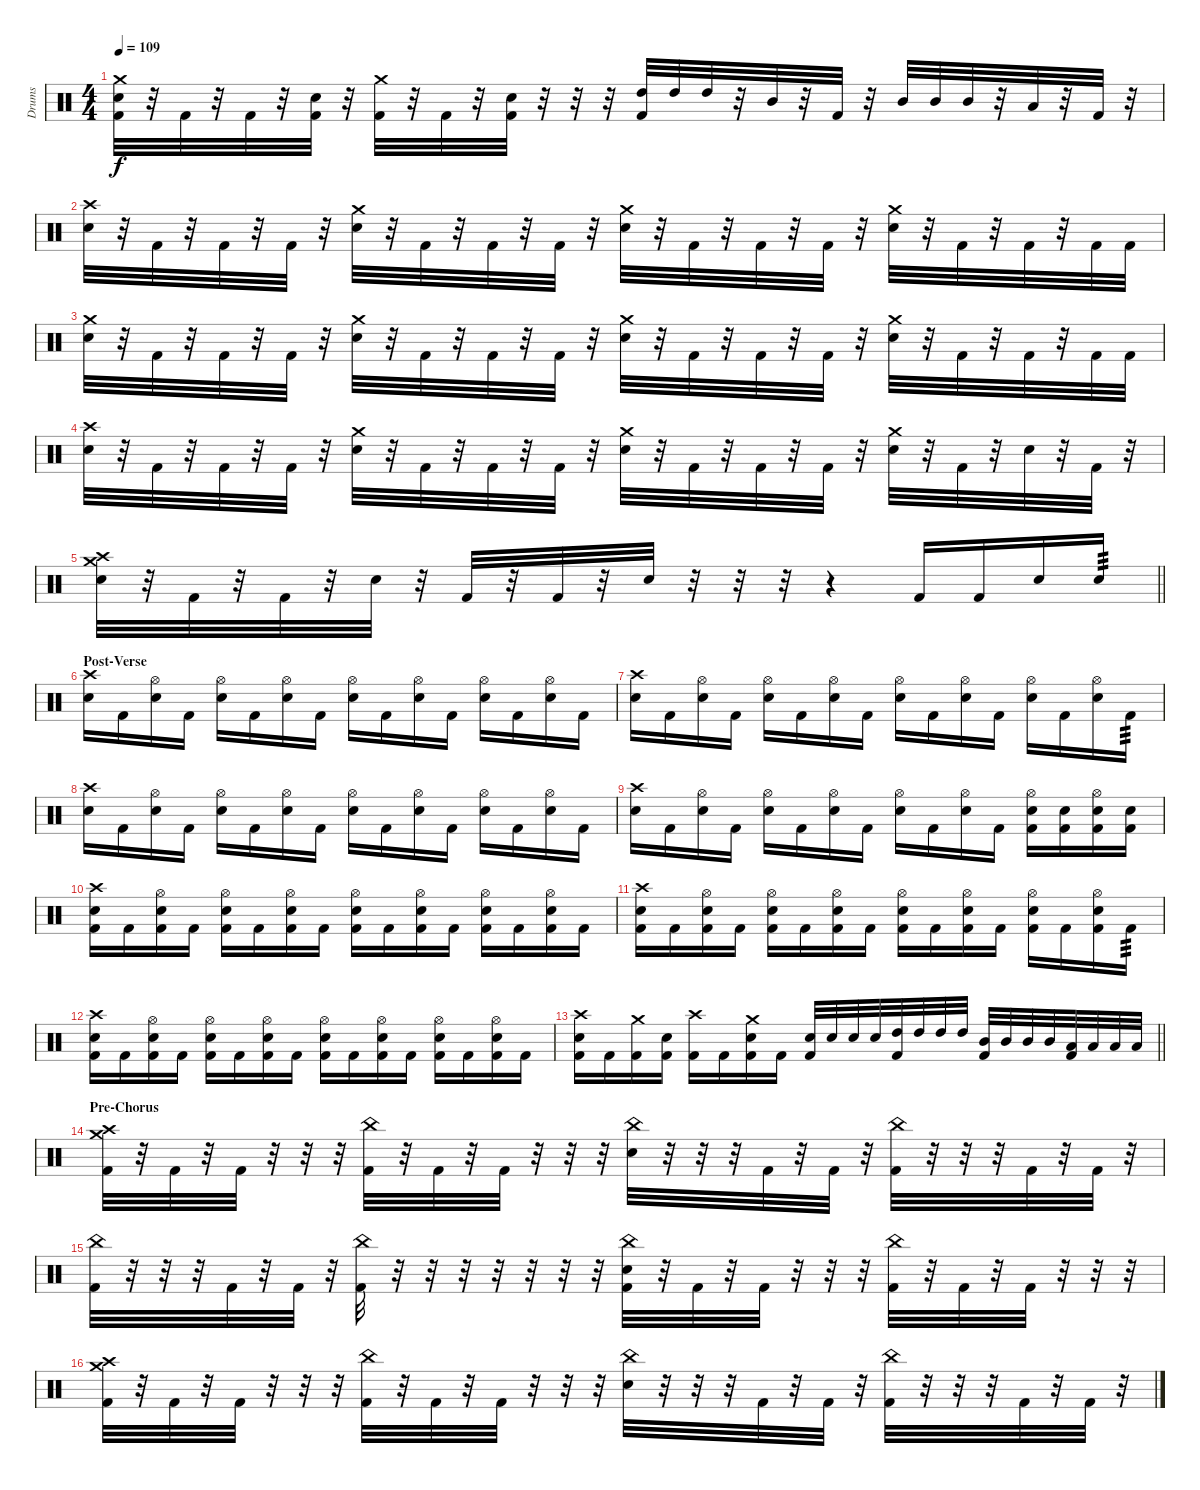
\track ("Drums" "Drums") {instrument percussion}
\staff {score}
\articulation defaults
\ts (4 4)
\tempo 109
\clef neutral
\ks c
("Crash medium (hit)" "Snare (hit) 2" "Kick (hit) 2").32{dy f} r.32 "Kick (hit) 2".32 r.32 "Kick (hit) 2".32 r.32 ("Snare (hit) 2" "Kick (hit) 2").32 r.32 ("Crash medium (hit)" "Kick (hit) 2").32 r.32 "Kick (hit) 2".32 r.32 ("Snare (hit) 2" "Kick (hit) 2").32 r.32 r.32 r.32 ("High Tom (hit)" "Kick (hit) 2").32 "High Tom (hit)".32 "High Tom (hit)".32 r.32 "Mid Tom (hit)".32 r.32 "Kick (hit) 2".32 r.32 "Mid Tom (hit)".32 "Mid Tom (hit)".32 "Mid Tom (hit)".32 r.32 "Low Tom (hit)".32 r.32 "Kick (hit) 2".32 r.32 |
("Crash high (hit)" "Snare (hit) 2").32 r.32 "Kick (hit) 2".32 r.32 "Kick (hit) 2".32 r.32 "Kick (hit) 2".32 r.32 ("Crash medium (hit)" "Snare (hit) 2").32 r.32 "Kick (hit) 2".32 r.32 "Kick (hit) 2".32 r.32 "Kick (hit) 2".32 r.32 ("Crash medium (hit)" "Snare (hit) 2").32 r.32 "Kick (hit) 2".32 r.32 "Kick (hit) 2".32 r.32 "Kick (hit) 2".32 r.32 ("Crash medium (hit)" "Snare (hit) 2").32 r.32 "Kick (hit) 2".32 r.32 "Kick (hit) 2".32 r.32 "Kick (hit) 2".32 "Kick (hit) 2".32 |
("Crash medium (hit)" "Snare (hit) 2").32 r.32 "Kick (hit) 2".32 r.32 "Kick (hit) 2".32 r.32 "Kick (hit) 2".32 r.32 ("Crash medium (hit)" "Snare (hit) 2").32 r.32 "Kick (hit) 2".32 r.32 "Kick (hit) 2".32 r.32 "Kick (hit) 2".32 r.32 ("Crash medium (hit)" "Snare (hit) 2").32 r.32 "Kick (hit) 2".32 r.32 "Kick (hit) 2".32 r.32 "Kick (hit) 2".32 r.32 ("Crash medium (hit)" "Snare (hit) 2").32 r.32 "Kick (hit) 2".32 r.32 "Kick (hit) 2".32 r.32 "Kick (hit) 2".32 "Kick (hit) 2".32 |
("Crash high (hit)" "Snare (hit) 2").32 r.32 "Kick (hit) 2".32 r.32 "Kick (hit) 2".32 r.32 "Kick (hit) 2".32 r.32 ("Crash medium (hit)" "Snare (hit) 2").32 r.32 "Kick (hit) 2".32 r.32 "Kick (hit) 2".32 r.32 "Kick (hit) 2".32 r.32 ("Crash medium (hit)" "Snare (hit) 2").32 r.32 "Kick (hit) 2".32 r.32 "Kick (hit) 2".32 r.32 "Kick (hit) 2".32 r.32 ("Crash medium (hit)" "Snare (hit) 2").32 r.32 "Kick (hit) 2".32 r.32 "Snare (hit) 2".32 r.32 "Kick (hit) 2".32 r.32 |
\barLineRight lightlight
("Crash medium (hit)" "Crash high (hit)" "Snare (hit) 2").32 r.32 "Kick (hit) 2".32 r.32 "Kick (hit) 2".32 r.32 "Snare (hit) 2".32 r.32 "Kick (hit) 2".32 r.32 "Kick (hit) 2".32 r.32 "Snare (hit) 2".32 r.32 r.32 r.32 r.4 "Kick (hit) 2".16 "Kick (hit) 2".16 "Snare (hit) 2".16 "Snare (hit) 2".16{tp 3} |
\section ("" "Post-Verse")
("Crash high (hit)" "Snare (hit) 2").16 "Kick (hit) 2".16 ("Hi-Hat (open)" "Snare (hit) 2").16 "Kick (hit) 2".16 ("Hi-Hat (open)" "Snare (hit) 2").16 "Kick (hit) 2".16 ("Hi-Hat (open)" "Snare (hit) 2").16 "Kick (hit) 2".16 ("Hi-Hat (open)" "Snare (hit) 2").16 "Kick (hit) 2".16 ("Hi-Hat (open)" "Snare (hit) 2").16 "Kick (hit) 2".16 ("Hi-Hat (open)" "Snare (hit) 2").16 "Kick (hit) 2".16 ("Hi-Hat (open)" "Snare (hit) 2").16 "Kick (hit) 2".16 |
("Crash high (hit)" "Snare (hit) 2").16 "Kick (hit) 2".16 ("Hi-Hat (open)" "Snare (hit) 2").16 "Kick (hit) 2".16 ("Hi-Hat (open)" "Snare (hit) 2").16 "Kick (hit) 2".16 ("Hi-Hat (open)" "Snare (hit) 2").16 "Kick (hit) 2".16 ("Hi-Hat (open)" "Snare (hit) 2").16 "Kick (hit) 2".16 ("Hi-Hat (open)" "Snare (hit) 2").16 "Kick (hit) 2".16 ("Hi-Hat (open)" "Snare (hit) 2").16 "Kick (hit) 2".16 ("Hi-Hat (open)" "Snare (hit) 2").16 "Kick (hit) 2".16{tp 3} |
("Crash high (hit)" "Snare (hit) 2").16 "Kick (hit) 2".16 ("Hi-Hat (open)" "Snare (hit) 2").16 "Kick (hit) 2".16 ("Hi-Hat (open)" "Snare (hit) 2").16 "Kick (hit) 2".16 ("Hi-Hat (open)" "Snare (hit) 2").16 "Kick (hit) 2".16 ("Hi-Hat (open)" "Snare (hit) 2").16 "Kick (hit) 2".16 ("Hi-Hat (open)" "Snare (hit) 2").16 "Kick (hit) 2".16 ("Hi-Hat (open)" "Snare (hit) 2").16 "Kick (hit) 2".16 ("Hi-Hat (open)" "Snare (hit) 2").16 "Kick (hit) 2".16 |
("Crash high (hit)" "Snare (hit) 2").16 "Kick (hit) 2".16 ("Hi-Hat (open)" "Snare (hit) 2").16 "Kick (hit) 2".16 ("Hi-Hat (open)" "Snare (hit) 2").16 "Kick (hit) 2".16 ("Hi-Hat (open)" "Snare (hit) 2").16 "Kick (hit) 2".16 ("Hi-Hat (open)" "Snare (hit) 2").16 "Kick (hit) 2".16 ("Hi-Hat (open)" "Snare (hit) 2").16 "Kick (hit) 2".16 ("Hi-Hat (open)" "Snare (hit) 2" "Kick (hit) 2").16 ("Snare (hit) 2" "Kick (hit) 2").16 ("Hi-Hat (open)" "Snare (hit) 2" "Kick (hit) 2").16 ("Snare (hit) 2" "Kick (hit) 2").16 |
("Crash high (hit)" "Snare (hit) 2" "Kick (hit) 2").16 "Kick (hit) 2".16 ("Hi-Hat (open)" "Snare (hit) 2" "Kick (hit) 2").16 "Kick (hit) 2".16 ("Hi-Hat (open)" "Snare (hit) 2" "Kick (hit) 2").16 "Kick (hit) 2".16 ("Hi-Hat (open)" "Snare (hit) 2" "Kick (hit) 2").16 "Kick (hit) 2".16 ("Hi-Hat (open)" "Snare (hit) 2" "Kick (hit) 2").16 "Kick (hit) 2".16 ("Hi-Hat (open)" "Snare (hit) 2" "Kick (hit) 2").16 "Kick (hit) 2".16 ("Hi-Hat (open)" "Snare (hit) 2" "Kick (hit) 2").16 "Kick (hit) 2".16 ("Hi-Hat (open)" "Snare (hit) 2" "Kick (hit) 2").16 "Kick (hit) 2".16 |
("Crash high (hit)" "Snare (hit) 2" "Kick (hit) 2").16 "Kick (hit) 2".16 ("Hi-Hat (open)" "Snare (hit) 2" "Kick (hit) 2").16 "Kick (hit) 2".16 ("Hi-Hat (open)" "Snare (hit) 2" "Kick (hit) 2").16 "Kick (hit) 2".16 ("Hi-Hat (open)" "Snare (hit) 2" "Kick (hit) 2").16 "Kick (hit) 2".16 ("Hi-Hat (open)" "Snare (hit) 2" "Kick (hit) 2").16 "Kick (hit) 2".16 ("Hi-Hat (open)" "Snare (hit) 2" "Kick (hit) 2").16 "Kick (hit) 2".16 ("Hi-Hat (open)" "Snare (hit) 2" "Kick (hit) 2").16 "Kick (hit) 2".16 ("Hi-Hat (open)" "Snare (hit) 2" "Kick (hit) 2").16 "Kick (hit) 2".16{tp 3} |
("Crash high (hit)" "Snare (hit) 2" "Kick (hit) 2").16 "Kick (hit) 2".16 ("Hi-Hat (open)" "Snare (hit) 2" "Kick (hit) 2").16 "Kick (hit) 2".16 ("Hi-Hat (open)" "Snare (hit) 2" "Kick (hit) 2").16 "Kick (hit) 2".16 ("Hi-Hat (open)" "Snare (hit) 2" "Kick (hit) 2").16 "Kick (hit) 2".16 ("Hi-Hat (open)" "Snare (hit) 2" "Kick (hit) 2").16 "Kick (hit) 2".16 ("Hi-Hat (open)" "Snare (hit) 2" "Kick (hit) 2").16 "Kick (hit) 2".16 ("Hi-Hat (open)" "Snare (hit) 2" "Kick (hit) 2").16 "Kick (hit) 2".16 ("Hi-Hat (open)" "Snare (hit) 2" "Kick (hit) 2").16 "Kick (hit) 2".16 |
\barLineRight lightlight
("Crash high (hit)" "Snare (hit) 2" "Kick (hit) 2").16 "Kick (hit) 2".16 ("Crash medium (hit)" "Kick (hit) 2").16 ("Snare (hit) 2" "Kick (hit) 2").16 ("Crash high (hit)" "Kick (hit) 2").16 "Kick (hit) 2".16 ("Crash medium (hit)" "Snare (hit) 2" "Kick (hit) 2").16 "Kick (hit) 2".16 ("Snare (hit) 2" "Kick (hit) 2").32 "Snare (hit) 2".32 "Snare (hit) 2".32 "Snare (hit) 2".32 ("High Tom (hit)" "Kick (hit) 2").32 "High Tom (hit)".32 "High Tom (hit)".32 "High Tom (hit)".32 ("Mid Tom (hit)" "Kick (hit) 2").32 "Mid Tom (hit)".32 "Mid Tom (hit)".32 "Mid Tom (hit)".32 ("Low Tom (hit)" "Kick (hit) 2").32 "Low Tom (hit)".32 "Low Tom (hit)".32 "Low Tom (hit)".32 |
\section ("" "Pre-Chorus")
("Crash high (hit)" "Crash medium (hit)" "Kick (hit) 2").32 r.32 "Kick (hit) 2".32 r.32 "Kick (hit) 2".32 r.32 r.32 r.32 ("China (hit)" "Kick (hit) 2").32 r.32 "Kick (hit) 2".32 r.32 "Kick (hit) 2".32 r.32 r.32 r.32 ("China (hit)" "Snare (hit) 2").32 r.32 r.32 r.32 "Kick (hit) 2".32 r.32 "Kick (hit) 2".32 r.32 ("China (hit)" "Kick (hit) 2").32 r.32 r.32 r.32 "Kick (hit) 2".32 r.32 "Kick (hit) 2".32 r.32 |
("China (hit)" "Kick (hit) 2").32 r.32 r.32 r.32 "Kick (hit) 2".32 r.32 "Kick (hit) 2".32 r.32 ("China (hit)" "Kick (hit) 2").32 r.32 r.32 r.32 r.32 r.32 r.32 r.32 ("China (hit)" "Snare (hit) 2" "Kick (hit) 2").32 r.32 "Kick (hit) 2".32 r.32 "Kick (hit) 2".32 r.32 r.32 r.32 ("China (hit)" "Kick (hit) 2").32 r.32 "Kick (hit) 2".32 r.32 "Kick (hit) 2".32 r.32 r.32 r.32 |
("Crash high (hit)" "Crash medium (hit)" "Kick (hit) 2").32 r.32 "Kick (hit) 2".32 r.32 "Kick (hit) 2".32 r.32 r.32 r.32 ("China (hit)" "Kick (hit) 2").32 r.32 "Kick (hit) 2".32 r.32 "Kick (hit) 2".32 r.32 r.32 r.32 ("China (hit)" "Snare (hit) 2").32 r.32 r.32 r.32 "Kick (hit) 2".32 r.32 "Kick (hit) 2".32 r.32 ("China (hit)" "Kick (hit) 2").32 r.32 r.32 r.32 "Kick (hit) 2".32 r.32 "Kick (hit) 2".32 r.32
